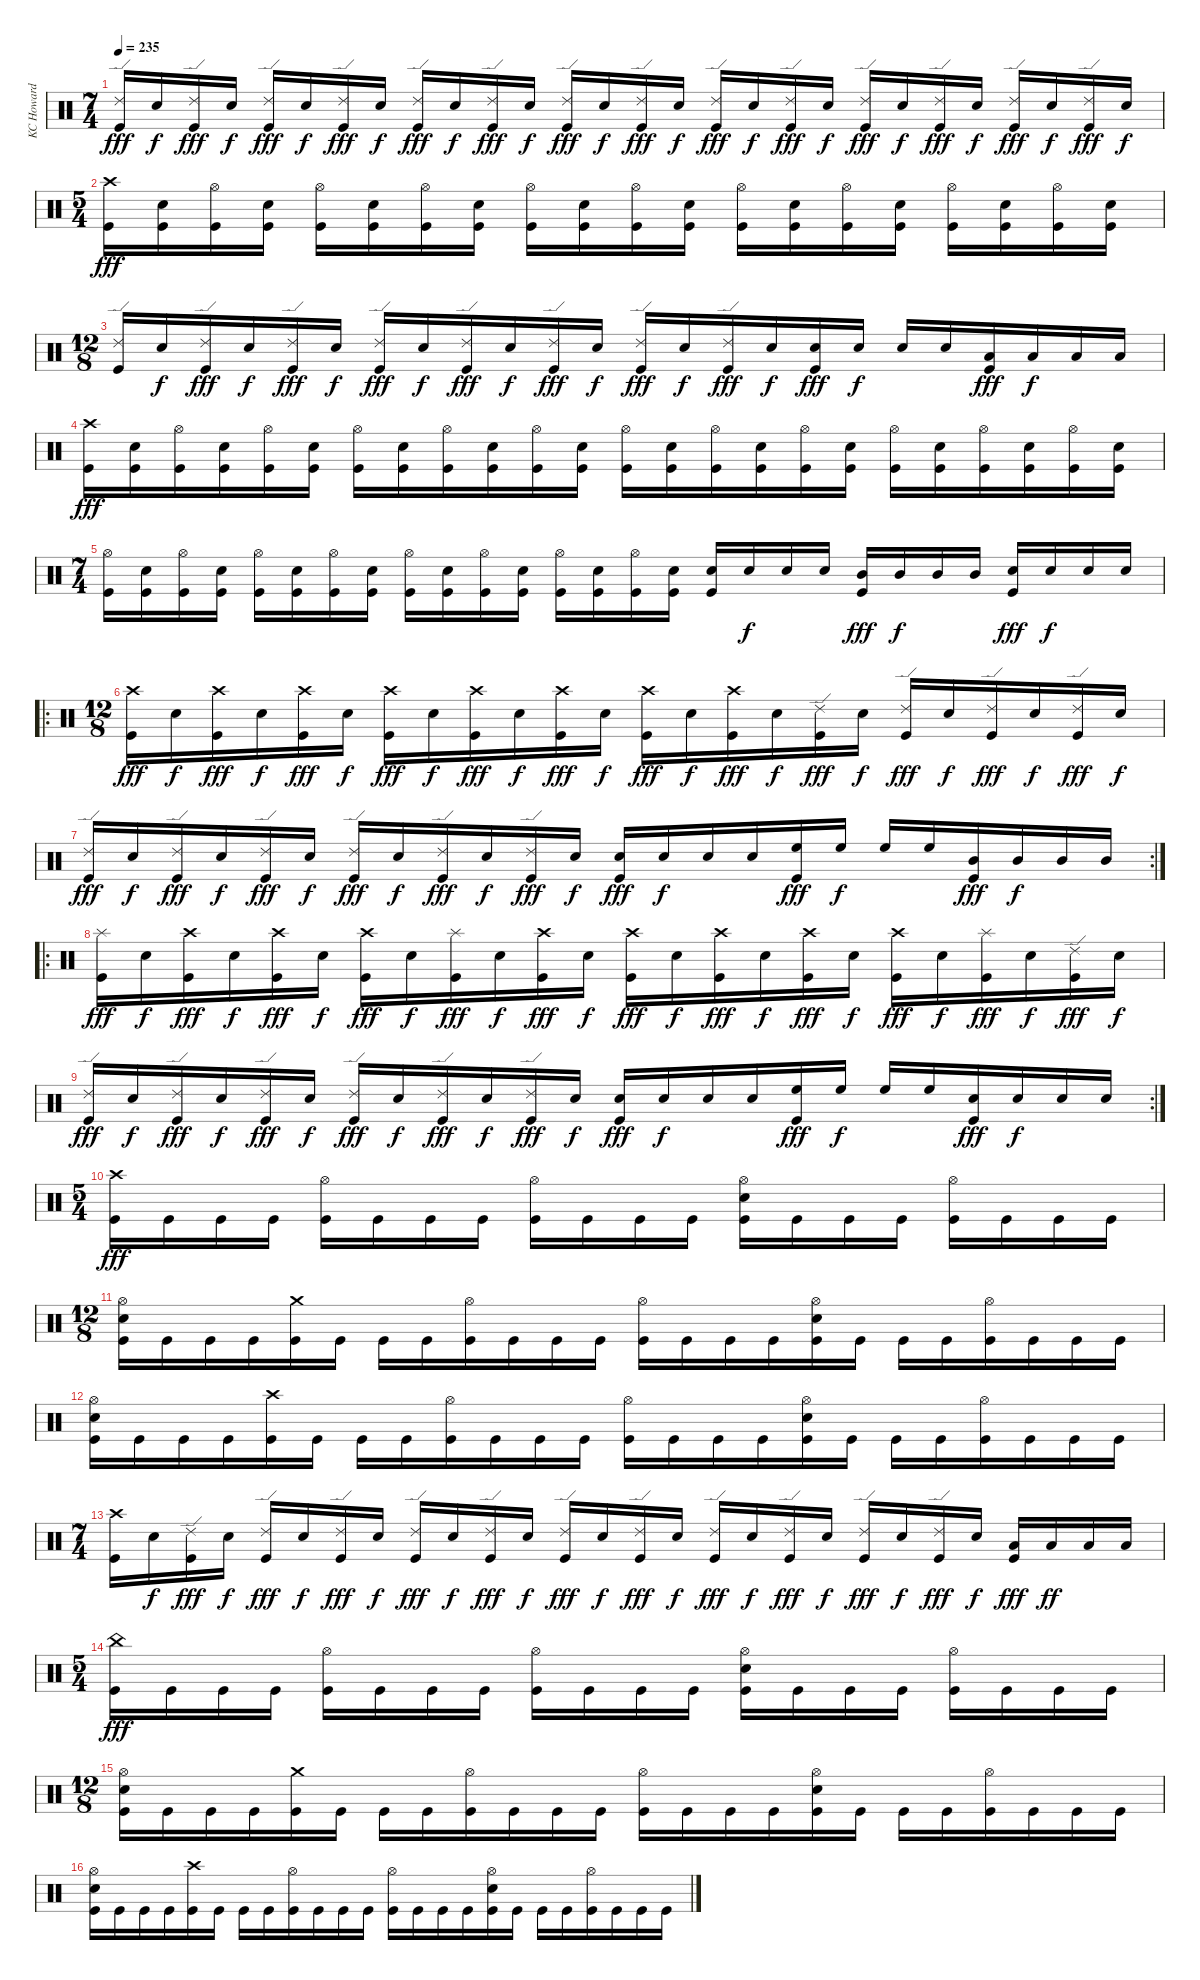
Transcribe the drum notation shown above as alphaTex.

\track ("KC Howard" "KC Howard") {instrument percussion}
\staff {score}
\articulation defaults
\ts (7 4)
\tempo 235
\clef neutral
\ks c
("Ride (edge) 2" "Kick (hit)").16{dy fff} "Electric Snare (hit)".16{dy f} ("Ride (edge) 2" "Kick (hit)").16{dy fff} "Electric Snare (hit)".16{dy f} ("Ride (edge) 2" "Kick (hit)").16{dy fff} "Electric Snare (hit)".16{dy f} ("Ride (edge) 2" "Kick (hit)").16{dy fff} "Electric Snare (hit)".16{dy f} ("Ride (edge) 2" "Kick (hit)").16{dy fff} "Electric Snare (hit)".16{dy f} ("Ride (edge) 2" "Kick (hit)").16{dy fff} "Electric Snare (hit)".16{dy f} ("Ride (edge) 2" "Kick (hit)").16{dy fff} "Electric Snare (hit)".16{dy f} ("Ride (edge) 2" "Kick (hit)").16{dy fff} "Electric Snare (hit)".16{dy f} ("Ride (edge) 2" "Kick (hit)").16{dy fff} "Electric Snare (hit)".16{dy f} ("Ride (edge) 2" "Kick (hit)").16{dy fff} "Electric Snare (hit)".16{dy f} ("Ride (edge) 2" "Kick (hit)").16{dy fff} "Electric Snare (hit)".16{dy f} ("Ride (edge) 2" "Kick (hit)").16{dy fff} "Electric Snare (hit)".16{dy f} ("Ride (edge) 2" "Kick (hit)").16{dy fff} "Electric Snare (hit)".16{dy f} ("Ride (edge) 2" "Kick (hit)").16{dy fff} "Electric Snare (hit)".16{dy f} |
\ts (5 4)
("Crash high (hit)" "Kick (hit)").16{dy fff} ("Electric Snare (hit)" "Kick (hit)").16 ("Hi-Hat (open)" "Kick (hit)").16 ("Electric Snare (hit)" "Kick (hit)").16 ("Hi-Hat (open)" "Kick (hit)").16 ("Electric Snare (hit)" "Kick (hit)").16 ("Hi-Hat (open)" "Kick (hit)").16 ("Electric Snare (hit)" "Kick (hit)").16 ("Hi-Hat (open)" "Kick (hit)").16 ("Electric Snare (hit)" "Kick (hit)").16 ("Hi-Hat (open)" "Kick (hit)").16 ("Electric Snare (hit)" "Kick (hit)").16 ("Hi-Hat (open)" "Kick (hit)").16 ("Electric Snare (hit)" "Kick (hit)").16 ("Hi-Hat (open)" "Kick (hit)").16 ("Electric Snare (hit)" "Kick (hit)").16 ("Hi-Hat (open)" "Kick (hit)").16 ("Electric Snare (hit)" "Kick (hit)").16 ("Hi-Hat (open)" "Kick (hit)").16 ("Electric Snare (hit)" "Kick (hit)").16 |
\ts (12 8)
("Ride (edge) 2" "Kick (hit)").16 "Electric Snare (hit)".16{dy f} ("Ride (edge) 2" "Kick (hit)").16{dy fff} "Electric Snare (hit)".16{dy f} ("Ride (edge) 2" "Kick (hit)").16{dy fff} "Electric Snare (hit)".16{dy f} ("Ride (edge) 2" "Kick (hit)").16{dy fff} "Electric Snare (hit)".16{dy f} ("Ride (edge) 2" "Kick (hit)").16{dy fff} "Electric Snare (hit)".16{dy f} ("Ride (edge) 2" "Kick (hit)").16{dy fff} "Electric Snare (hit)".16{dy f} ("Ride (edge) 2" "Kick (hit)").16{dy fff} "Electric Snare (hit)".16{dy f} ("Ride (edge) 2" "Kick (hit)").16{dy fff} "Electric Snare (hit)".16{dy f} ("Electric Snare (hit)" "Kick (hit)").16{dy fff} "Electric Snare (hit)".16{dy f} "Electric Snare (hit)".16 "Electric Snare (hit)".16 ("Low Tom (hit)" "Kick (hit)").16{dy fff} "Low Tom (hit)".16{dy f} "Low Tom (hit)".16 "Low Tom (hit)".16 |
("Crash high (hit)" "Kick (hit)").16{dy fff} ("Electric Snare (hit)" "Kick (hit)").16 ("Hi-Hat (open)" "Kick (hit)").16 ("Electric Snare (hit)" "Kick (hit)").16 ("Hi-Hat (open)" "Kick (hit)").16 ("Electric Snare (hit)" "Kick (hit)").16 ("Hi-Hat (open)" "Kick (hit)").16 ("Electric Snare (hit)" "Kick (hit)").16 ("Hi-Hat (open)" "Kick (hit)").16 ("Electric Snare (hit)" "Kick (hit)").16 ("Hi-Hat (open)" "Kick (hit)").16 ("Electric Snare (hit)" "Kick (hit)").16 ("Hi-Hat (open)" "Kick (hit)").16 ("Electric Snare (hit)" "Kick (hit)").16 ("Hi-Hat (open)" "Kick (hit)").16 ("Electric Snare (hit)" "Kick (hit)").16 ("Hi-Hat (open)" "Kick (hit)").16 ("Electric Snare (hit)" "Kick (hit)").16 ("Hi-Hat (open)" "Kick (hit)").16 ("Electric Snare (hit)" "Kick (hit)").16 ("Hi-Hat (open)" "Kick (hit)").16 ("Electric Snare (hit)" "Kick (hit)").16 ("Hi-Hat (open)" "Kick (hit)").16 ("Electric Snare (hit)" "Kick (hit)").16 |
\ts (7 4)
("Hi-Hat (open)" "Kick (hit)").16 ("Electric Snare (hit)" "Kick (hit)").16 ("Hi-Hat (open)" "Kick (hit)").16 ("Electric Snare (hit)" "Kick (hit)").16 ("Hi-Hat (open)" "Kick (hit)").16 ("Electric Snare (hit)" "Kick (hit)").16 ("Hi-Hat (open)" "Kick (hit)").16 ("Electric Snare (hit)" "Kick (hit)").16 ("Hi-Hat (open)" "Kick (hit)").16 ("Electric Snare (hit)" "Kick (hit)").16 ("Hi-Hat (open)" "Kick (hit)").16 ("Electric Snare (hit)" "Kick (hit)").16 ("Hi-Hat (open)" "Kick (hit)").16 ("Electric Snare (hit)" "Kick (hit)").16 ("Hi-Hat (open)" "Kick (hit)").16 ("Electric Snare (hit)" "Kick (hit)").16 ("Electric Snare (hit)" "Kick (hit)").16 "Electric Snare (hit)".16{dy f} "Electric Snare (hit)".16 "Electric Snare (hit)".16 ("Mid Tom (hit)" "Kick (hit)").16{dy fff} "Mid Tom (hit)".16{dy f} "Mid Tom (hit)".16 "Mid Tom (hit)".16 ("Electric Snare (hit)" "Kick (hit)").16{dy fff} "Electric Snare (hit)".16{dy f} "Electric Snare (hit)".16 "Electric Snare (hit)".16 |
\ro
\ts (12 8)
("Crash high (hit)" "Kick (hit)").16{dy fff} "Electric Snare (hit)".16{dy f} ("Crash high (hit)" "Kick (hit)").16{dy fff} "Electric Snare (hit)".16{dy f} ("Crash high (hit)" "Kick (hit)").16{dy fff} "Electric Snare (hit)".16{dy f} ("Crash high (hit)" "Kick (hit)").16{dy fff} "Electric Snare (hit)".16{dy f} ("Crash high (hit)" "Kick (hit)").16{dy fff} "Electric Snare (hit)".16{dy f} ("Crash high (hit)" "Kick (hit)").16{dy fff} "Electric Snare (hit)".16{dy f} ("Crash high (hit)" "Kick (hit)").16{dy fff} "Electric Snare (hit)".16{dy f} ("Crash high (hit)" "Kick (hit)").16{dy fff} "Electric Snare (hit)".16{dy f} ("Ride (edge) 2" "Kick (hit)").16{dy fff} "Electric Snare (hit)".16{dy f} ("Ride (edge) 2" "Kick (hit)").16{dy fff} "Electric Snare (hit)".16{dy f} ("Ride (edge) 2" "Kick (hit)").16{dy fff} "Electric Snare (hit)".16{dy f} ("Ride (edge) 2" "Kick (hit)").16{dy fff} "Electric Snare (hit)".16{dy f} |
\rc 2
("Ride (edge) 2" "Kick (hit)").16{dy fff} "Electric Snare (hit)".16{dy f} ("Ride (edge) 2" "Kick (hit)").16{dy fff} "Electric Snare (hit)".16{dy f} ("Ride (edge) 2" "Kick (hit)").16{dy fff} "Electric Snare (hit)".16{dy f} ("Ride (edge) 2" "Kick (hit)").16{dy fff} "Electric Snare (hit)".16{dy f} ("Ride (edge) 2" "Kick (hit)").16{dy fff} "Electric Snare (hit)".16{dy f} ("Ride (edge) 2" "Kick (hit)").16{dy fff} "Electric Snare (hit)".16{dy f} ("Electric Snare (hit)" "Kick (hit)").16{dy fff} "Electric Snare (hit)".16{dy f} "Electric Snare (hit)".16 "Electric Snare (hit)".16 ("High Floor Tom (hit)" "Kick (hit)").16{dy fff} "High Floor Tom (hit)".16{dy f} "High Floor Tom (hit)".16 "High Floor Tom (hit)".16 ("Mid Tom (hit)" "Kick (hit)").16{dy fff} "Mid Tom (hit)".16{dy f} "Mid Tom (hit)".16 "Mid Tom (hit)".16 |
\ro
("Splash (hit)" "Kick (hit)").16{dy fff} "Electric Snare (hit)".16{dy f} ("Crash high (hit)" "Kick (hit)").16{dy fff} "Electric Snare (hit)".16{dy f} ("Crash high (hit)" "Kick (hit)").16{dy fff} "Electric Snare (hit)".16{dy f} ("Crash high (hit)" "Kick (hit)").16{dy fff} "Electric Snare (hit)".16{dy f} ("Splash (hit)" "Kick (hit)").16{dy fff} "Electric Snare (hit)".16{dy f} ("Crash high (hit)" "Kick (hit)").16{dy fff} "Electric Snare (hit)".16{dy f} ("Crash high (hit)" "Kick (hit)").16{dy fff} "Electric Snare (hit)".16{dy f} ("Crash high (hit)" "Kick (hit)").16{dy fff} "Electric Snare (hit)".16{dy f} ("Crash high (hit)" "Kick (hit)").16{dy fff} "Electric Snare (hit)".16{dy f} ("Crash high (hit)" "Kick (hit)").16{dy fff} "Electric Snare (hit)".16{dy f} ("Splash (hit)" "Kick (hit)").16{dy fff} "Electric Snare (hit)".16{dy f} ("Ride (edge) 2" "Kick (hit)").16{dy fff} "Electric Snare (hit)".16{dy f} |
\rc 2
("Ride (edge) 2" "Kick (hit)").16{dy fff} "Electric Snare (hit)".16{dy f} ("Ride (edge) 2" "Kick (hit)").16{dy fff} "Electric Snare (hit)".16{dy f} ("Ride (edge) 2" "Kick (hit)").16{dy fff} "Electric Snare (hit)".16{dy f} ("Ride (edge) 2" "Kick (hit)").16{dy fff} "Electric Snare (hit)".16{dy f} ("Ride (edge) 2" "Kick (hit)").16{dy fff} "Electric Snare (hit)".16{dy f} ("Ride (edge) 2" "Kick (hit)").16{dy fff} "Electric Snare (hit)".16{dy f} ("Electric Snare (hit)" "Kick (hit)").16{dy fff} "Electric Snare (hit)".16{dy f} "Electric Snare (hit)".16 "Electric Snare (hit)".16 ("High Floor Tom (hit)" "Kick (hit)").16{dy fff} "High Floor Tom (hit)".16{dy f} "High Floor Tom (hit)".16 "High Floor Tom (hit)".16 ("Electric Snare (hit)" "Kick (hit)").16{dy fff} "Electric Snare (hit)".16{dy f} "Electric Snare (hit)".16 "Electric Snare (hit)".16 |
\ts (5 4)
("Crash high (hit)" "Kick (hit)").16{dy fff} "Kick (hit)".16 "Kick (hit)".16 "Kick (hit)".16 ("Hi-Hat (open)" "Kick (hit)").16 "Kick (hit)".16 "Kick (hit)".16 "Kick (hit)".16 ("Hi-Hat (open)" "Kick (hit)").16 "Kick (hit)".16 "Kick (hit)".16 "Kick (hit)".16 ("Hi-Hat (open)" "Electric Snare (hit)" "Kick (hit)").16 "Kick (hit)".16 "Kick (hit)".16 "Kick (hit)".16 ("Hi-Hat (open)" "Kick (hit)").16 "Kick (hit)".16 "Kick (hit)".16 "Kick (hit)".16 |
\ts (12 8)
("Hi-Hat (open)" "Electric Snare (hit)" "Kick (hit)").16 "Kick (hit)".16 "Kick (hit)".16 "Kick (hit)".16 ("Crash medium (hit)" "Kick (hit)").16 "Kick (hit)".16 "Kick (hit)".16 "Kick (hit)".16 ("Hi-Hat (open)" "Kick (hit)").16 "Kick (hit)".16 "Kick (hit)".16 "Kick (hit)".16 ("Hi-Hat (open)" "Kick (hit)").16 "Kick (hit)".16 "Kick (hit)".16 "Kick (hit)".16 ("Hi-Hat (open)" "Electric Snare (hit)" "Kick (hit)").16 "Kick (hit)".16 "Kick (hit)".16 "Kick (hit)".16 ("Hi-Hat (open)" "Kick (hit)").16 "Kick (hit)".16 "Kick (hit)".16 "Kick (hit)".16 |
("Hi-Hat (open)" "Electric Snare (hit)" "Kick (hit)").16 "Kick (hit)".16 "Kick (hit)".16 "Kick (hit)".16 ("Crash high (hit)" "Kick (hit)").16 "Kick (hit)".16 "Kick (hit)".16 "Kick (hit)".16 ("Hi-Hat (open)" "Kick (hit)").16 "Kick (hit)".16 "Kick (hit)".16 "Kick (hit)".16 ("Hi-Hat (open)" "Kick (hit)").16 "Kick (hit)".16 "Kick (hit)".16 "Kick (hit)".16 ("Hi-Hat (open)" "Electric Snare (hit)" "Kick (hit)").16 "Kick (hit)".16 "Kick (hit)".16 "Kick (hit)".16 ("Hi-Hat (open)" "Kick (hit)").16 "Kick (hit)".16 "Kick (hit)".16 "Kick (hit)".16 |
\ts (7 4)
("Crash high (hit)" "Kick (hit)").16 "Electric Snare (hit)".16{dy f} ("Ride (edge) 2" "Kick (hit)").16{dy fff} "Electric Snare (hit)".16{dy f} ("Ride (edge) 2" "Kick (hit)").16{dy fff} "Electric Snare (hit)".16{dy f} ("Ride (edge) 2" "Kick (hit)").16{dy fff} "Electric Snare (hit)".16{dy f} ("Ride (edge) 2" "Kick (hit)").16{dy fff} "Electric Snare (hit)".16{dy f} ("Ride (edge) 2" "Kick (hit)").16{dy fff} "Electric Snare (hit)".16{dy f} ("Ride (edge) 2" "Kick (hit)").16{dy fff} "Electric Snare (hit)".16{dy f} ("Ride (edge) 2" "Kick (hit)").16{dy fff} "Electric Snare (hit)".16{dy f} ("Ride (edge) 2" "Kick (hit)").16{dy fff} "Electric Snare (hit)".16{dy f} ("Ride (edge) 2" "Kick (hit)").16{dy fff} "Electric Snare (hit)".16{dy f} ("Ride (edge) 2" "Kick (hit)").16{dy fff} "Electric Snare (hit)".16{dy f} ("Ride (edge) 2" "Kick (hit)").16{dy fff} "Electric Snare (hit)".16{dy f} ("Low Tom (hit)" "Kick (hit)").16{dy fff} "Low Tom (hit)".16{dy ff} "Low Tom (hit)".16 "Low Tom (hit)".16 |
\ts (5 4)
("China (hit)" "Kick (hit)").16{dy fff} "Kick (hit)".16 "Kick (hit)".16 "Kick (hit)".16 ("Hi-Hat (open)" "Kick (hit)").16 "Kick (hit)".16 "Kick (hit)".16 "Kick (hit)".16 ("Hi-Hat (open)" "Kick (hit)").16 "Kick (hit)".16 "Kick (hit)".16 "Kick (hit)".16 ("Hi-Hat (open)" "Electric Snare (hit)" "Kick (hit)").16 "Kick (hit)".16 "Kick (hit)".16 "Kick (hit)".16 ("Hi-Hat (open)" "Kick (hit)").16 "Kick (hit)".16 "Kick (hit)".16 "Kick (hit)".16 |
\ts (12 8)
("Hi-Hat (open)" "Electric Snare (hit)" "Kick (hit)").16 "Kick (hit)".16 "Kick (hit)".16 "Kick (hit)".16 ("Crash medium (hit)" "Kick (hit)").16 "Kick (hit)".16 "Kick (hit)".16 "Kick (hit)".16 ("Hi-Hat (open)" "Kick (hit)").16 "Kick (hit)".16 "Kick (hit)".16 "Kick (hit)".16 ("Hi-Hat (open)" "Kick (hit)").16 "Kick (hit)".16 "Kick (hit)".16 "Kick (hit)".16 ("Hi-Hat (open)" "Electric Snare (hit)" "Kick (hit)").16 "Kick (hit)".16 "Kick (hit)".16 "Kick (hit)".16 ("Hi-Hat (open)" "Kick (hit)").16 "Kick (hit)".16 "Kick (hit)".16 "Kick (hit)".16 |
("Hi-Hat (open)" "Electric Snare (hit)" "Kick (hit)").16 "Kick (hit)".16 "Kick (hit)".16 "Kick (hit)".16 ("Crash high (hit)" "Kick (hit)").16 "Kick (hit)".16 "Kick (hit)".16 "Kick (hit)".16 ("Hi-Hat (open)" "Kick (hit)").16 "Kick (hit)".16 "Kick (hit)".16 "Kick (hit)".16 ("Hi-Hat (open)" "Kick (hit)").16 "Kick (hit)".16 "Kick (hit)".16 "Kick (hit)".16 ("Hi-Hat (open)" "Electric Snare (hit)" "Kick (hit)").16 "Kick (hit)".16 "Kick (hit)".16 "Kick (hit)".16 ("Hi-Hat (open)" "Kick (hit)").16 "Kick (hit)".16 "Kick (hit)".16 "Kick (hit)".16
